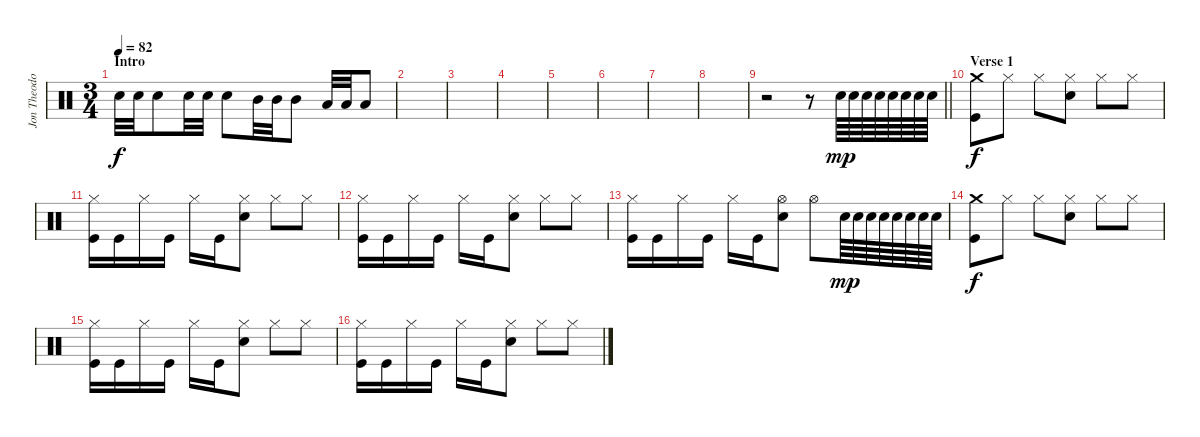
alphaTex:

\track ("Jon Theodore - Drums" "Jon Theodo") {instrument percussion}
\staff {score}
\articulation defaults
\ts (3 4)
\section ("" "Intro")
\tempo 82
\clef neutral
\ks c "Snare (hit) 2".32{dy f} "Snare (hit) 2".32 "Snare (hit) 2".8 "Snare (hit) 2".32 "Snare (hit) 2".32 "Snare (hit) 2".8 "Mid Tom (hit)".32 "Mid Tom (hit)".32 "Mid Tom (hit)".8 "Low Tom (hit)".32 "Low Tom (hit)".32 "Low Tom (hit)".8
|
|
|
|
|
|
|
|
\barLineRight lightlight
r.2 r.8 "Snare (hit) 2".64{dy mp} "Snare (hit) 2".64 "Snare (hit) 2".64 "Snare (hit) 2".64 "Snare (hit) 2".64 "Snare (hit) 2".64 "Snare (hit) 2".64 "Snare (hit) 2".64 |
\section ("" "Verse 1")
("Crash medium (hit)" "Kick (hit)").8{dy f} "Hi-Hat (closed)".8 "Hi-Hat (closed)".8 ("Hi-Hat (closed)" "Snare (hit) 2").8 "Hi-Hat (closed)".8 "Hi-Hat (closed)".8 |
("Hi-Hat (closed)" "Kick (hit)").16 "Kick (hit)".16 "Hi-Hat (closed)".16 "Kick (hit)".16 "Hi-Hat (closed)".16 "Kick (hit)".16 ("Hi-Hat (closed)" "Snare (hit) 2").8 "Hi-Hat (closed)".8 "Hi-Hat (closed)".8 |
("Hi-Hat (closed)" "Kick (hit)").16 "Kick (hit)".16 "Hi-Hat (closed)".16 "Kick (hit)".16 "Hi-Hat (closed)".16 "Kick (hit)".16 ("Hi-Hat (closed)" "Snare (hit) 2").8 "Hi-Hat (closed)".8 "Hi-Hat (closed)".8 |
("Hi-Hat (closed)" "Kick (hit)").16 "Kick (hit)".16 "Hi-Hat (closed)".16 "Kick (hit)".16 "Hi-Hat (closed)".16 "Kick (hit)".16 ("Hi-Hat (open)" "Snare (hit) 2").8 "Hi-Hat (open)".8 "Snare (hit) 2".64{dy mp} "Snare (hit) 2".64 "Snare (hit) 2".64 "Snare (hit) 2".64 "Snare (hit) 2".64 "Snare (hit) 2".64 "Snare (hit) 2".64 "Snare (hit) 2".64 |
("Crash medium (hit)" "Kick (hit)").8{dy f} "Hi-Hat (closed)".8 "Hi-Hat (closed)".8 ("Hi-Hat (closed)" "Snare (hit) 2").8 "Hi-Hat (closed)".8 "Hi-Hat (closed)".8 |
("Hi-Hat (closed)" "Kick (hit)").16 "Kick (hit)".16 "Hi-Hat (closed)".16 "Kick (hit)".16 "Hi-Hat (closed)".16 "Kick (hit)".16 ("Hi-Hat (closed)" "Snare (hit) 2").8 "Hi-Hat (closed)".8 "Hi-Hat (closed)".8 |
("Hi-Hat (closed)" "Kick (hit)").16 "Kick (hit)".16 "Hi-Hat (closed)".16 "Kick (hit)".16 "Hi-Hat (closed)".16 "Kick (hit)".16 ("Hi-Hat (closed)" "Snare (hit) 2").8 "Hi-Hat (closed)".8 "Hi-Hat (closed)".8
